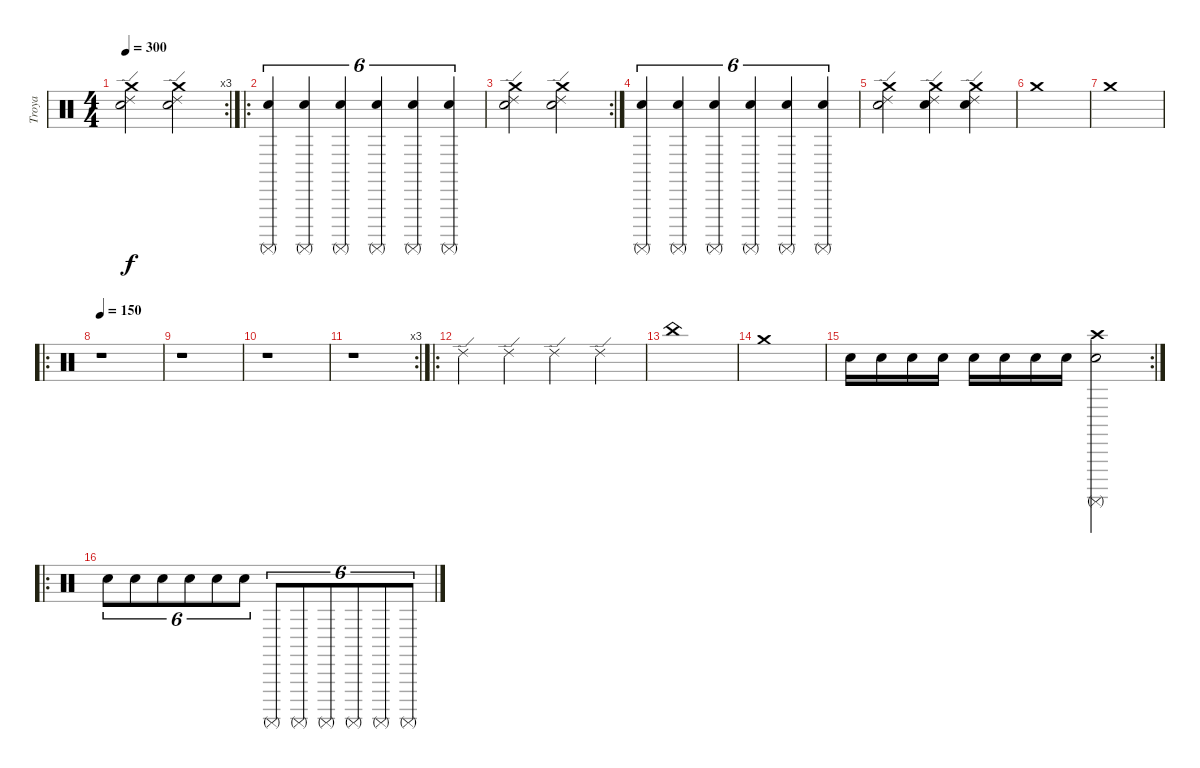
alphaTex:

\track ("Troya" "Troya") {instrument percussion}
\staff {score}
\articulation defaults
\rc 3
\ts (4 4)
\tempo 300
\clef neutral
\ks c
("Crash medium (hit)" "Ride (edge) 2" "Electric Snare (hit)").2{dy f} ("Crash medium (hit)" "Ride (edge) 2" "Electric Snare (hit)").2 |
\ro
("Electric Snare (hit)" "Surdo (mute)").4{tu (6 4)} ("Electric Snare (hit)" "Surdo (mute)").4{tu (6 4)} ("Electric Snare (hit)" "Surdo (mute)").4{tu (6 4)} ("Electric Snare (hit)" "Surdo (mute)").4{tu (6 4)} ("Electric Snare (hit)" "Surdo (mute)").4{tu (6 4)} ("Electric Snare (hit)" "Surdo (mute)").4{tu (6 4)} |
\rc 2
("Crash medium (hit)" "Ride (edge) 2" "Electric Snare (hit)").2 ("Crash medium (hit)" "Ride (edge) 2" "Electric Snare (hit)").2 |
("Electric Snare (hit)" "Surdo (mute)").4{tu (6 4)} ("Electric Snare (hit)" "Surdo (mute)").4{tu (6 4)} ("Electric Snare (hit)" "Surdo (mute)").4{tu (6 4)} ("Electric Snare (hit)" "Surdo (mute)").4{tu (6 4)} ("Electric Snare (hit)" "Surdo (mute)").4{tu (6 4)} ("Electric Snare (hit)" "Surdo (mute)").4{tu (6 4)} |
("Crash medium (hit)" "Ride (edge) 2" "Electric Snare (hit)").2 ("Crash medium (hit)" "Ride (edge) 2" "Electric Snare (hit)").4 ("Electric Snare (hit)" "Ride (edge) 2" "Crash medium (hit)").4 |
"Crash medium (hit)".1 |
"Crash medium (hit)".1 |
\ro
\tempo 150
r.1 |
r.1 |
r.1 |
\rc 3
r.1 |
\ro "Ride (edge) 2".4 "Ride (edge) 2".4 "Ride (edge) 2".4 "Ride (edge) 2".4
|
"China (hit)".1 |
"Crash medium (hit)".1 |
\rc 2 "Snare (hit) 2".16 "Snare (hit) 2".16 "Snare (hit) 2".16 "Snare (hit) 2".16 "Snare (hit) 2".16 "Snare (hit) 2".16 "Snare (hit) 2".16 "Snare (hit) 2".16
("Crash high (hit)" "Surdo (mute)" "Electric Snare (hit)").2 |
\ro "Electric Snare (hit)".8{tu (6 4)} "Electric Snare (hit)".8{tu (6 4)} "Electric Snare (hit)".8{tu (6 4)} "Electric Snare (hit)".8{tu (6 4)} "Electric Snare (hit)".8{tu (6 4)} "Electric Snare (hit)".8{tu (6 4)} "Surdo (mute)".8{tu (6 4)} "Surdo (mute)".8{tu (6 4)} "Surdo (mute)".8{tu (6 4)} "Surdo (mute)".8{tu (6 4)} "Surdo (mute)".8{tu (6 4)} "Surdo (mute)".8{tu (6 4)}
